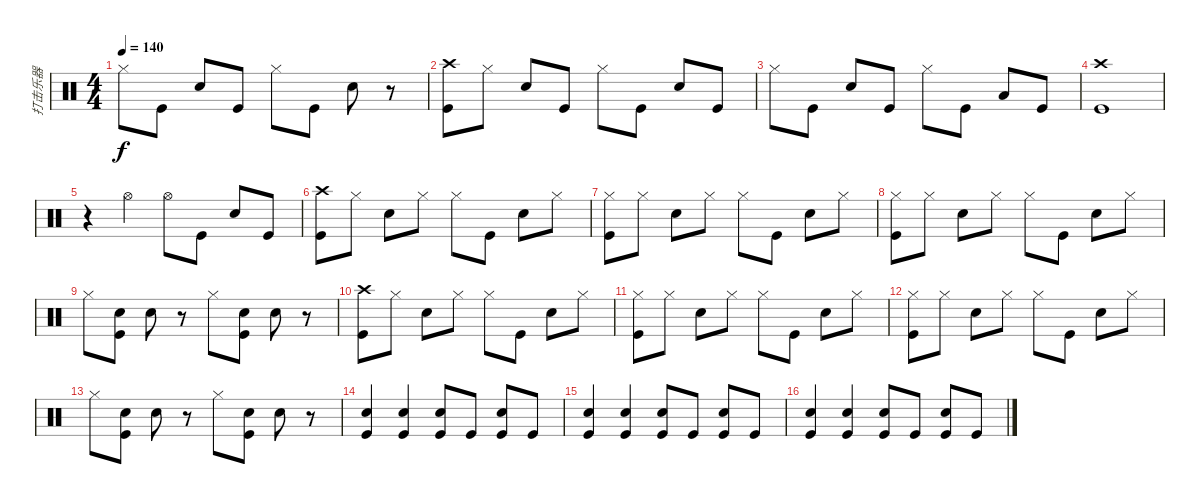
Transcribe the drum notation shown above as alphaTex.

\track ("打击乐器" "打击乐器") {instrument percussion}
\staff {score}
\articulation defaults
\ts (4 4)
\tempo 140
\clef neutral
\ks c "Hi-Hat (closed)".8{dy f} "Kick (hit)".8 "Snare (hit) 2".8 "Kick (hit)".8 "Hi-Hat (closed)".8 "Kick (hit)".8 "Snare (hit) 2".8
r.8 |
("Crash high (hit)" "Kick (hit)").8 "Hi-Hat (closed)".8 "Snare (hit) 2".8 "Kick (hit)".8 "Hi-Hat (closed)".8 "Kick (hit)".8 "Snare (hit) 2".8 "Kick (hit)".8 |
"Hi-Hat (closed)".8 "Kick (hit)".8 "Snare (hit) 2".8 "Kick (hit)".8 "Hi-Hat (closed)".8 "Kick (hit)".8 "Low Floor Tom (hit)".8 "Kick (hit)".8 |
("Crash high (hit)" "Kick (hit)").1 |
r.4 "Hi-Hat (open)".4 "Hi-Hat (open)".8 "Kick (hit)".8 "Snare (hit) 2".8 "Kick (hit)".8 |
("Crash high (hit)" "Kick (hit)").8 "Hi-Hat (closed)".8 "Snare (hit) 2".8 "Hi-Hat (closed)".8 "Hi-Hat (closed)".8 "Kick (hit)".8 "Snare (hit) 2".8 "Hi-Hat (closed)".8 |
("Hi-Hat (closed)" "Kick (hit)").8 "Hi-Hat (closed)".8 "Snare (hit) 2".8 "Hi-Hat (closed)".8 "Hi-Hat (closed)".8 "Kick (hit)".8 "Snare (hit) 2".8 "Hi-Hat (closed)".8 |
("Hi-Hat (closed)" "Kick (hit)").8 "Hi-Hat (closed)".8 "Snare (hit) 2".8 "Hi-Hat (closed)".8 "Hi-Hat (closed)".8 "Kick (hit)".8 "Snare (hit) 2".8 "Hi-Hat (closed)".8 |
"Hi-Hat (closed)".8 ("Snare (hit) 2" "Kick (hit)").8 "Snare (hit) 2".8 r.8 "Hi-Hat (closed)".8 ("Snare (hit) 2" "Kick (hit)").8 "Snare (hit) 2".8 r.8 |
("Crash high (hit)" "Kick (hit)").8 "Hi-Hat (closed)".8 "Snare (hit) 2".8 "Hi-Hat (closed)".8 "Hi-Hat (closed)".8 "Kick (hit)".8 "Snare (hit) 2".8 "Hi-Hat (closed)".8 |
("Hi-Hat (closed)" "Kick (hit)").8 "Hi-Hat (closed)".8 "Snare (hit) 2".8 "Hi-Hat (closed)".8 "Hi-Hat (closed)".8 "Kick (hit)".8 "Snare (hit) 2".8 "Hi-Hat (closed)".8 |
("Hi-Hat (closed)" "Kick (hit)").8 "Hi-Hat (closed)".8 "Snare (hit) 2".8 "Hi-Hat (closed)".8 "Hi-Hat (closed)".8 "Kick (hit)".8 "Snare (hit) 2".8 "Hi-Hat (closed)".8 |
"Hi-Hat (closed)".8 ("Snare (hit) 2" "Kick (hit)").8 "Snare (hit) 2".8 r.8 "Hi-Hat (closed)".8 ("Snare (hit) 2" "Kick (hit)").8 "Snare (hit) 2".8 r.8 |
("Kick (hit)" "Snare (hit) 2").4 ("Kick (hit)" "Snare (hit) 2").4 ("Kick (hit)" "Snare (hit) 2").8 "Kick (hit)".8 ("Snare (hit) 2" "Kick (hit)").8 "Kick (hit)".8 |
("Kick (hit)" "Snare (hit) 2").4 ("Kick (hit)" "Snare (hit) 2").4 ("Kick (hit)" "Snare (hit) 2").8 "Kick (hit)".8 ("Snare (hit) 2" "Kick (hit)").8 "Kick (hit)".8 |
("Kick (hit)" "Snare (hit) 2").4 ("Kick (hit)" "Snare (hit) 2").4 ("Kick (hit)" "Snare (hit) 2").8 "Kick (hit)".8 ("Snare (hit) 2" "Kick (hit)").8 "Kick (hit)".8
